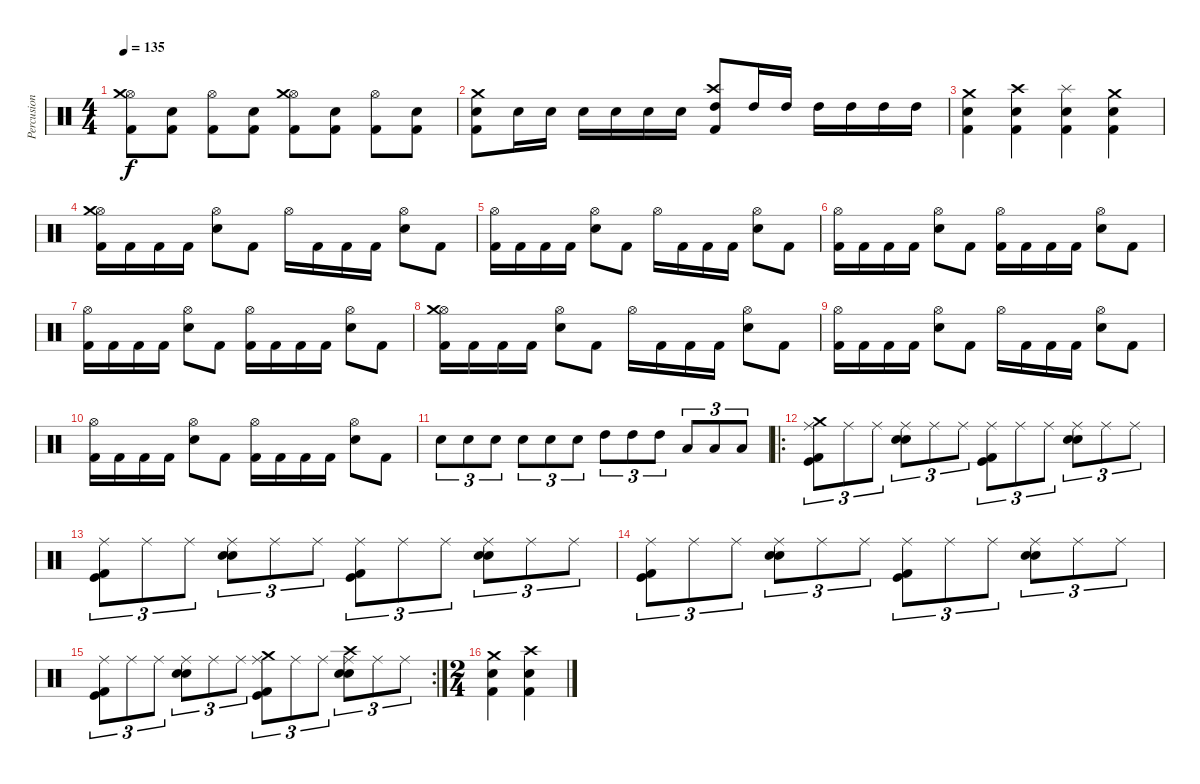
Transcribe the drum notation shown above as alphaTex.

\track ("Percusion" "Percusion") {instrument percussion}
\staff {score}
\articulation defaults
\ts (4 4)
\tempo 135
\clef neutral
\ks c
("Hi-Hat (open)" "Crash medium (hit)" "Kick (hit) 2").8{dy f} ("Snare (hit) 2" "Kick (hit) 2").8 ("Hi-Hat (open)" "Kick (hit) 2").8 ("Snare (hit) 2" "Kick (hit) 2").8 ("Hi-Hat (open)" "Crash medium (hit)" "Kick (hit) 2").8 ("Snare (hit) 2" "Kick (hit) 2").8 ("Hi-Hat (open)" "Kick (hit) 2").8 ("Snare (hit) 2" "Kick (hit) 2").8 |
("Crash medium (hit)" "Snare (hit) 2" "Kick (hit) 2").8 "Snare (hit) 2".16 "Snare (hit) 2".16 "Snare (hit) 2".16 "Snare (hit) 2".16 "Snare (hit) 2".16 "Snare (hit) 2".16 ("Crash high (hit)" "High Tom (hit)" "Kick (hit) 2").8 "High Tom (hit)".16 "High Tom (hit)".16 "High Tom (hit)".16 "High Tom (hit)".16 "High Tom (hit)".16 "High Tom (hit)".16 |
("Crash medium (hit)" "Snare (hit) 2" "Kick (hit) 2").4 ("Crash high (hit)" "Snare (hit) 2" "Kick (hit) 2").4 ("Splash (hit)" "Snare (hit) 2" "Kick (hit) 2").4 ("Crash medium (hit)" "Snare (hit) 2" "Kick (hit) 2").4 |
("Hi-Hat (open)" "Crash medium (hit)" "Kick (hit) 2").16 "Kick (hit) 2".16 "Kick (hit) 2".16 "Kick (hit) 2".16 ("Hi-Hat (open)" "Electric Snare (hit)").8 "Kick (hit) 2".8 "Hi-Hat (open)".16 "Kick (hit) 2".16 "Kick (hit) 2".16 "Kick (hit) 2".16 ("Hi-Hat (open)" "Electric Snare (hit)").8 "Kick (hit) 2".8 |
("Hi-Hat (open)" "Kick (hit) 2").16 "Kick (hit) 2".16 "Kick (hit) 2".16 "Kick (hit) 2".16 ("Hi-Hat (open)" "Electric Snare (hit)").8 "Kick (hit) 2".8 "Hi-Hat (open)".16 "Kick (hit) 2".16 "Kick (hit) 2".16 "Kick (hit) 2".16 ("Hi-Hat (open)" "Electric Snare (hit)").8 "Kick (hit) 2".8 |
("Hi-Hat (open)" "Kick (hit) 2").16 "Kick (hit) 2".16 "Kick (hit) 2".16 "Kick (hit) 2".16 ("Hi-Hat (open)" "Electric Snare (hit)").8 "Kick (hit) 2".8 ("Hi-Hat (open)" "Kick (hit) 2").16 "Kick (hit) 2".16 "Kick (hit) 2".16 "Kick (hit) 2".16 ("Hi-Hat (open)" "Electric Snare (hit)").8 "Kick (hit) 2".8 |
("Hi-Hat (open)" "Kick (hit) 2").16 "Kick (hit) 2".16 "Kick (hit) 2".16 "Kick (hit) 2".16 ("Hi-Hat (open)" "Electric Snare (hit)").8 "Kick (hit) 2".8 ("Hi-Hat (open)" "Kick (hit) 2").16 "Kick (hit) 2".16 "Kick (hit) 2".16 "Kick (hit) 2".16 ("Hi-Hat (open)" "Electric Snare (hit)").8 "Kick (hit) 2".8 |
("Hi-Hat (open)" "Crash medium (hit)" "Kick (hit) 2").16 "Kick (hit) 2".16 "Kick (hit) 2".16 "Kick (hit) 2".16 ("Hi-Hat (open)" "Electric Snare (hit)").8 "Kick (hit) 2".8 "Hi-Hat (open)".16 "Kick (hit) 2".16 "Kick (hit) 2".16 "Kick (hit) 2".16 ("Hi-Hat (open)" "Electric Snare (hit)").8 "Kick (hit) 2".8 |
("Hi-Hat (open)" "Kick (hit) 2").16 "Kick (hit) 2".16 "Kick (hit) 2".16 "Kick (hit) 2".16 ("Hi-Hat (open)" "Electric Snare (hit)").8 "Kick (hit) 2".8 "Hi-Hat (open)".16 "Kick (hit) 2".16 "Kick (hit) 2".16 "Kick (hit) 2".16 ("Hi-Hat (open)" "Electric Snare (hit)").8 "Kick (hit) 2".8 |
("Hi-Hat (open)" "Kick (hit) 2").16 "Kick (hit) 2".16 "Kick (hit) 2".16 "Kick (hit) 2".16 ("Hi-Hat (open)" "Electric Snare (hit)").8 "Kick (hit) 2".8 ("Hi-Hat (open)" "Kick (hit) 2").16 "Kick (hit) 2".16 "Kick (hit) 2".16 "Kick (hit) 2".16 ("Hi-Hat (open)" "Electric Snare (hit)").8 "Kick (hit) 2".8 |
"Snare (hit) 2".8{tu (3 2)} "Snare (hit) 2".8{tu (3 2)} "Snare (hit) 2".8{tu (3 2)} "Electric Snare (hit)".8{tu (3 2)} "Electric Snare (hit)".8{tu (3 2)} "Electric Snare (hit)".8{tu (3 2)} "High Tom (hit)".8{tu (3 2)} "High Tom (hit)".8{tu (3 2)} "High Tom (hit)".8{tu (3 2)} "Low Tom (hit)".8{tu (3 2)} "Low Tom (hit)".8{tu (3 2)} "Low Tom (hit)".8{tu (3 2)} |
\ro
("Ride (middle)" "Crash medium (hit)" "Kick (hit)" "Kick (hit) 2").8{tu (3 2)} "Ride (middle)".8{tu (3 2)} "Ride (middle)".8{tu (3 2)} ("Ride (middle)" "Snare (hit) 2" "Electric Snare (hit)").8{tu (3 2)} "Ride (middle)".8{tu (3 2)} "Ride (middle)".8{tu (3 2)} ("Ride (middle)" "Kick (hit)" "Kick (hit) 2").8{tu (3 2)} "Ride (middle)".8{tu (3 2)} "Ride (middle)".8{tu (3 2)} ("Ride (middle)" "Snare (hit) 2" "Electric Snare (hit)").8{tu (3 2)} "Ride (middle)".8{tu (3 2)} "Ride (middle)".8{tu (3 2)} |
("Ride (middle)" "Kick (hit)" "Kick (hit) 2").8{tu (3 2)} "Ride (middle)".8{tu (3 2)} "Ride (middle)".8{tu (3 2)} ("Ride (middle)" "Snare (hit) 2" "Electric Snare (hit)").8{tu (3 2)} "Ride (middle)".8{tu (3 2)} "Ride (middle)".8{tu (3 2)} ("Ride (middle)" "Kick (hit)" "Kick (hit) 2").8{tu (3 2)} "Ride (middle)".8{tu (3 2)} "Ride (middle)".8{tu (3 2)} ("Ride (middle)" "Snare (hit) 2" "Electric Snare (hit)").8{tu (3 2)} "Ride (middle)".8{tu (3 2)} "Ride (middle)".8{tu (3 2)} |
("Ride (middle)" "Kick (hit)" "Kick (hit) 2").8{tu (3 2)} "Ride (middle)".8{tu (3 2)} "Ride (middle)".8{tu (3 2)} ("Ride (middle)" "Snare (hit) 2" "Electric Snare (hit)").8{tu (3 2)} "Ride (middle)".8{tu (3 2)} "Ride (middle)".8{tu (3 2)} ("Ride (middle)" "Kick (hit)" "Kick (hit) 2").8{tu (3 2)} "Ride (middle)".8{tu (3 2)} "Ride (middle)".8{tu (3 2)} ("Ride (middle)" "Snare (hit) 2" "Electric Snare (hit)").8{tu (3 2)} "Ride (middle)".8{tu (3 2)} "Ride (middle)".8{tu (3 2)} |
\rc 2
("Ride (middle)" "Kick (hit)" "Kick (hit) 2").8{tu (3 2)} "Ride (middle)".8{tu (3 2)} "Ride (middle)".8{tu (3 2)} ("Ride (middle)" "Snare (hit) 2" "Electric Snare (hit)").8{tu (3 2)} "Ride (middle)".8{tu (3 2)} "Ride (middle)".8{tu (3 2)} ("Crash medium (hit)" "Ride (middle)" "Kick (hit)" "Kick (hit) 2").8{tu (3 2)} "Ride (middle)".8{tu (3 2)} "Ride (middle)".8{tu (3 2)} ("Crash high (hit)" "Ride (middle)" "Snare (hit) 2" "Electric Snare (hit)").8{tu (3 2)} "Ride (middle)".8{tu (3 2)} "Ride (middle)".8{tu (3 2)} |
\ts (2 4)
("Crash medium (hit)" "Snare (hit) 2" "Kick (hit) 2").4 ("Crash high (hit)" "Snare (hit) 2" "Kick (hit) 2").4
